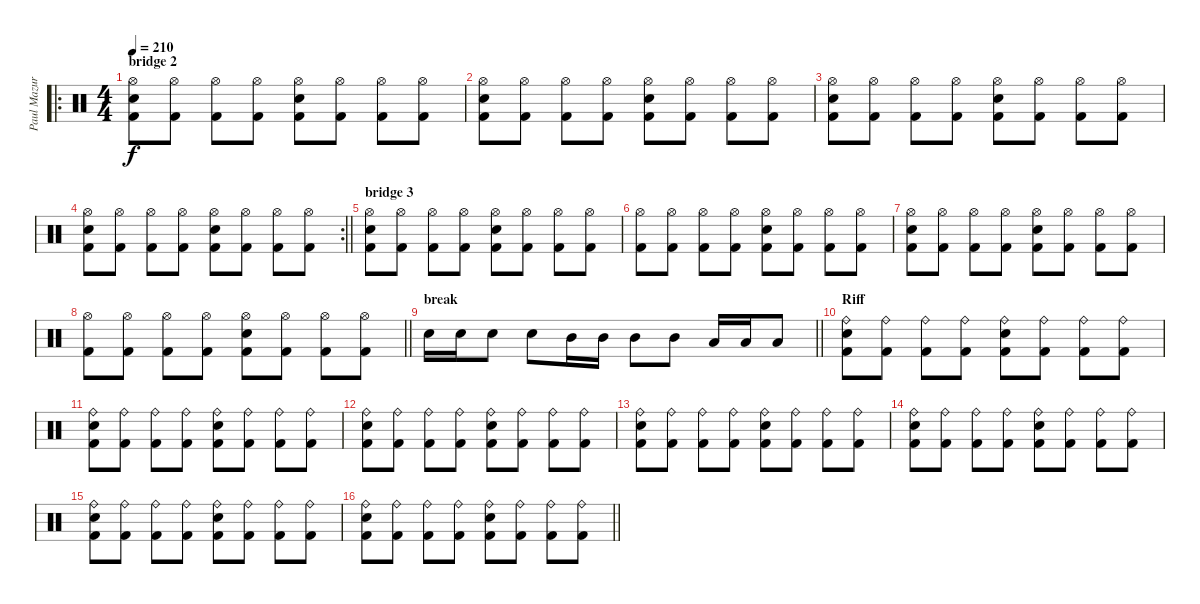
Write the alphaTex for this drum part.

\track ("Paul Mazurkiewicz" "Paul Mazur") {instrument percussion}
\staff {score}
\articulation defaults
\ro
\ts (4 4)
\section ("" "bridge 2")
\tempo 210
\clef neutral
\ks c
("Hi-Hat (open)" "Snare (hit) 2" "Kick (hit) 2").8{dy f} ("Hi-Hat (open)" "Kick (hit) 2").8 ("Hi-Hat (open)" "Kick (hit) 2").8 ("Hi-Hat (open)" "Kick (hit) 2").8 ("Hi-Hat (open)" "Snare (hit) 2" "Kick (hit) 2").8 ("Hi-Hat (open)" "Kick (hit) 2").8 ("Hi-Hat (open)" "Kick (hit) 2").8 ("Hi-Hat (open)" "Kick (hit) 2").8 |
("Hi-Hat (open)" "Snare (hit) 2" "Kick (hit) 2").8 ("Hi-Hat (open)" "Kick (hit) 2").8 ("Hi-Hat (open)" "Kick (hit) 2").8 ("Hi-Hat (open)" "Kick (hit) 2").8 ("Hi-Hat (open)" "Snare (hit) 2" "Kick (hit) 2").8 ("Hi-Hat (open)" "Kick (hit) 2").8 ("Hi-Hat (open)" "Kick (hit) 2").8 ("Hi-Hat (open)" "Kick (hit) 2").8 |
("Hi-Hat (open)" "Snare (hit) 2" "Kick (hit) 2").8 ("Hi-Hat (open)" "Kick (hit) 2").8 ("Hi-Hat (open)" "Kick (hit) 2").8 ("Hi-Hat (open)" "Kick (hit) 2").8 ("Hi-Hat (open)" "Snare (hit) 2" "Kick (hit) 2").8 ("Hi-Hat (open)" "Kick (hit) 2").8 ("Hi-Hat (open)" "Kick (hit) 2").8 ("Hi-Hat (open)" "Kick (hit) 2").8 |
\rc 2
\barLineRight lightlight
("Hi-Hat (open)" "Snare (hit) 2" "Kick (hit) 2").8 ("Hi-Hat (open)" "Kick (hit) 2").8 ("Hi-Hat (open)" "Kick (hit) 2").8 ("Hi-Hat (open)" "Kick (hit) 2").8 ("Hi-Hat (open)" "Snare (hit) 2" "Kick (hit) 2").8 ("Hi-Hat (open)" "Kick (hit) 2").8 ("Hi-Hat (open)" "Kick (hit) 2").8 ("Hi-Hat (open)" "Kick (hit) 2").8 |
\section ("" "bridge 3")
("Hi-Hat (open)" "Snare (hit) 2" "Kick (hit) 2").8 ("Hi-Hat (open)" "Kick (hit) 2").8 ("Hi-Hat (open)" "Kick (hit) 2").8 ("Hi-Hat (open)" "Kick (hit) 2").8 ("Hi-Hat (open)" "Snare (hit) 2" "Kick (hit) 2").8 ("Hi-Hat (open)" "Kick (hit) 2").8 ("Hi-Hat (open)" "Kick (hit) 2").8 ("Hi-Hat (open)" "Kick (hit) 2").8 |
("Hi-Hat (open)" "Kick (hit) 2").8 ("Hi-Hat (open)" "Kick (hit) 2").8 ("Hi-Hat (open)" "Kick (hit) 2").8 ("Hi-Hat (open)" "Kick (hit) 2").8 ("Hi-Hat (open)" "Snare (hit) 2" "Kick (hit) 2").8 ("Hi-Hat (open)" "Kick (hit) 2").8 ("Hi-Hat (open)" "Kick (hit) 2").8 ("Hi-Hat (open)" "Kick (hit) 2").8 |
("Hi-Hat (open)" "Snare (hit) 2" "Kick (hit) 2").8 ("Hi-Hat (open)" "Kick (hit) 2").8 ("Hi-Hat (open)" "Kick (hit) 2").8 ("Hi-Hat (open)" "Kick (hit) 2").8 ("Hi-Hat (open)" "Snare (hit) 2" "Kick (hit) 2").8 ("Hi-Hat (open)" "Kick (hit) 2").8 ("Hi-Hat (open)" "Kick (hit) 2").8 ("Hi-Hat (open)" "Kick (hit) 2").8 |
\barLineRight lightlight
("Hi-Hat (open)" "Kick (hit) 2").8 ("Hi-Hat (open)" "Kick (hit) 2").8 ("Hi-Hat (open)" "Kick (hit) 2").8 ("Hi-Hat (open)" "Kick (hit) 2").8 ("Hi-Hat (open)" "Snare (hit) 2" "Kick (hit) 2").8 ("Hi-Hat (open)" "Kick (hit) 2").8 ("Hi-Hat (open)" "Kick (hit) 2").8 ("Hi-Hat (open)" "Kick (hit) 2").8 |
\section ("" "break")
\barLineRight lightlight "Snare (hit) 2".16 "Snare (hit) 2".16 "Snare (hit) 2".8 "Snare (hit) 2".8 "Mid Tom (hit)".16 "Mid Tom (hit)".16 "Mid Tom (hit)".8 "Mid Tom (hit)".8 "Low Tom (hit)".16 "Low Tom (hit)".16 "Low Tom (hit)".8
|
\section ("" "Riff")
("Ride (bell)" "Snare (hit) 2" "Kick (hit) 2").8 ("Ride (bell)" "Kick (hit) 2").8 ("Ride (bell)" "Kick (hit) 2").8 ("Ride (bell)" "Kick (hit) 2").8 ("Ride (bell)" "Snare (hit) 2" "Kick (hit) 2").8 ("Ride (bell)" "Kick (hit) 2").8 ("Ride (bell)" "Kick (hit) 2").8 ("Ride (bell)" "Kick (hit) 2").8 |
("Ride (bell)" "Snare (hit) 2" "Kick (hit) 2").8 ("Ride (bell)" "Kick (hit) 2").8 ("Ride (bell)" "Kick (hit) 2").8 ("Ride (bell)" "Kick (hit) 2").8 ("Ride (bell)" "Snare (hit) 2" "Kick (hit) 2").8 ("Ride (bell)" "Kick (hit) 2").8 ("Ride (bell)" "Kick (hit) 2").8 ("Ride (bell)" "Kick (hit) 2").8 |
("Ride (bell)" "Snare (hit) 2" "Kick (hit) 2").8 ("Ride (bell)" "Kick (hit) 2").8 ("Ride (bell)" "Kick (hit) 2").8 ("Ride (bell)" "Kick (hit) 2").8 ("Ride (bell)" "Snare (hit) 2" "Kick (hit) 2").8 ("Ride (bell)" "Kick (hit) 2").8 ("Ride (bell)" "Kick (hit) 2").8 ("Ride (bell)" "Kick (hit) 2").8 |
("Ride (bell)" "Snare (hit) 2" "Kick (hit) 2").8 ("Ride (bell)" "Kick (hit) 2").8 ("Ride (bell)" "Kick (hit) 2").8 ("Ride (bell)" "Kick (hit) 2").8 ("Ride (bell)" "Snare (hit) 2" "Kick (hit) 2").8 ("Ride (bell)" "Kick (hit) 2").8 ("Ride (bell)" "Kick (hit) 2").8 ("Ride (bell)" "Kick (hit) 2").8 |
("Ride (bell)" "Snare (hit) 2" "Kick (hit) 2").8 ("Ride (bell)" "Kick (hit) 2").8 ("Ride (bell)" "Kick (hit) 2").8 ("Ride (bell)" "Kick (hit) 2").8 ("Ride (bell)" "Snare (hit) 2" "Kick (hit) 2").8 ("Ride (bell)" "Kick (hit) 2").8 ("Ride (bell)" "Kick (hit) 2").8 ("Ride (bell)" "Kick (hit) 2").8 |
("Ride (bell)" "Snare (hit) 2" "Kick (hit) 2").8 ("Ride (bell)" "Kick (hit) 2").8 ("Ride (bell)" "Kick (hit) 2").8 ("Ride (bell)" "Kick (hit) 2").8 ("Ride (bell)" "Snare (hit) 2" "Kick (hit) 2").8 ("Ride (bell)" "Kick (hit) 2").8 ("Ride (bell)" "Kick (hit) 2").8 ("Ride (bell)" "Kick (hit) 2").8 |
\barLineRight lightlight
("Ride (bell)" "Snare (hit) 2" "Kick (hit) 2").8 ("Ride (bell)" "Kick (hit) 2").8 ("Ride (bell)" "Kick (hit) 2").8 ("Ride (bell)" "Kick (hit) 2").8 ("Ride (bell)" "Snare (hit) 2" "Kick (hit) 2").8 ("Ride (bell)" "Kick (hit) 2").8 ("Ride (bell)" "Kick (hit) 2").8 ("Ride (bell)" "Kick (hit) 2").8
